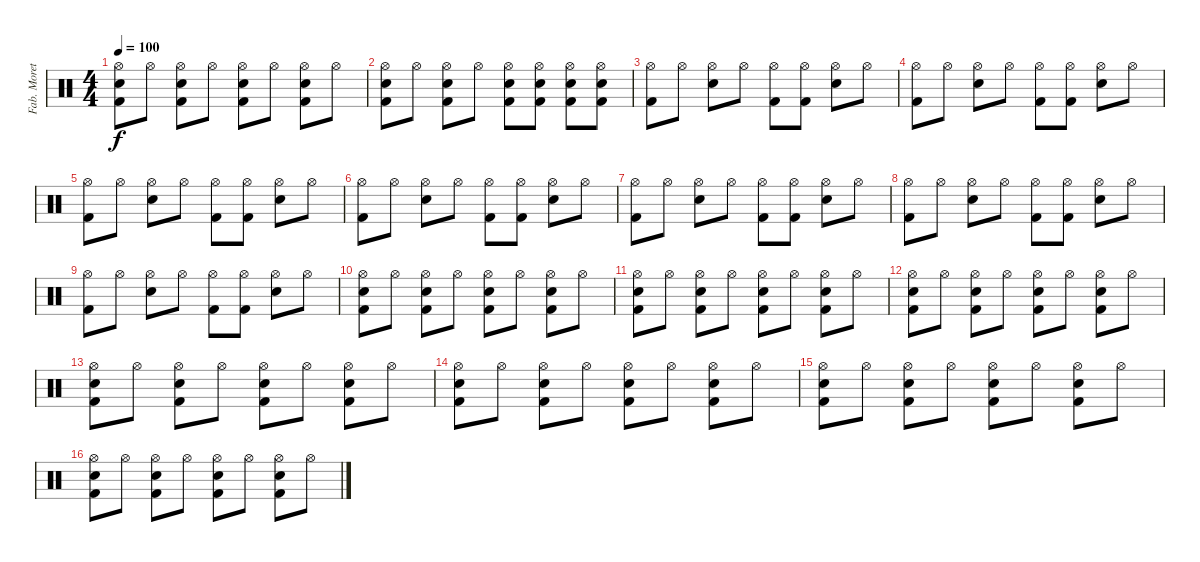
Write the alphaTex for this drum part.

\track ("Fab. Moretti" "Fab. Moret") {instrument percussion}
\staff {score}
\articulation defaults
\ts (4 4)
\tempo 100
\clef neutral
\ks c
("Hi-Hat (open)" "Electric Snare (hit)" "Kick (hit) 2").8{dy f} "Hi-Hat (open)".8 ("Hi-Hat (open)" "Electric Snare (hit)" "Kick (hit) 2").8 "Hi-Hat (open)".8 ("Hi-Hat (open)" "Electric Snare (hit)" "Kick (hit) 2").8 "Hi-Hat (open)".8 ("Hi-Hat (open)" "Electric Snare (hit)" "Kick (hit) 2").8 "Hi-Hat (open)".8 |
("Hi-Hat (open)" "Electric Snare (hit)" "Kick (hit) 2").8 "Hi-Hat (open)".8 ("Hi-Hat (open)" "Electric Snare (hit)" "Kick (hit) 2").8 "Hi-Hat (open)".8 ("Hi-Hat (open)" "Electric Snare (hit)" "Kick (hit) 2").8 ("Hi-Hat (open)" "Electric Snare (hit)" "Kick (hit) 2").8 ("Hi-Hat (open)" "Electric Snare (hit)" "Kick (hit) 2").8 ("Hi-Hat (open)" "Electric Snare (hit)" "Kick (hit) 2").8 |
("Hi-Hat (open)" "Kick (hit) 2").8 "Hi-Hat (open)".8 ("Hi-Hat (open)" "Electric Snare (hit)").8 "Hi-Hat (open)".8 ("Hi-Hat (open)" "Kick (hit) 2").8 ("Hi-Hat (open)" "Kick (hit) 2").8 ("Hi-Hat (open)" "Electric Snare (hit)").8 "Hi-Hat (open)".8 |
("Hi-Hat (open)" "Kick (hit) 2").8 "Hi-Hat (open)".8 ("Hi-Hat (open)" "Electric Snare (hit)").8 "Hi-Hat (open)".8 ("Hi-Hat (open)" "Kick (hit) 2").8 ("Hi-Hat (open)" "Kick (hit) 2").8 ("Hi-Hat (open)" "Electric Snare (hit)").8 "Hi-Hat (open)".8 |
("Hi-Hat (open)" "Kick (hit) 2").8 "Hi-Hat (open)".8 ("Hi-Hat (open)" "Electric Snare (hit)").8 "Hi-Hat (open)".8 ("Hi-Hat (open)" "Kick (hit) 2").8 ("Hi-Hat (open)" "Kick (hit) 2").8 ("Hi-Hat (open)" "Electric Snare (hit)").8 "Hi-Hat (open)".8 |
("Hi-Hat (open)" "Kick (hit) 2").8 "Hi-Hat (open)".8 ("Hi-Hat (open)" "Electric Snare (hit)").8 "Hi-Hat (open)".8 ("Hi-Hat (open)" "Kick (hit) 2").8 ("Hi-Hat (open)" "Kick (hit) 2").8 ("Hi-Hat (open)" "Electric Snare (hit)").8 "Hi-Hat (open)".8 |
("Hi-Hat (open)" "Kick (hit) 2").8 "Hi-Hat (open)".8 ("Hi-Hat (open)" "Electric Snare (hit)").8 "Hi-Hat (open)".8 ("Hi-Hat (open)" "Kick (hit) 2").8 ("Hi-Hat (open)" "Kick (hit) 2").8 ("Hi-Hat (open)" "Electric Snare (hit)").8 "Hi-Hat (open)".8 |
("Hi-Hat (open)" "Kick (hit) 2").8 "Hi-Hat (open)".8 ("Hi-Hat (open)" "Electric Snare (hit)").8 "Hi-Hat (open)".8 ("Hi-Hat (open)" "Kick (hit) 2").8 ("Hi-Hat (open)" "Kick (hit) 2").8 ("Hi-Hat (open)" "Electric Snare (hit)").8 "Hi-Hat (open)".8 |
("Hi-Hat (open)" "Kick (hit) 2").8 "Hi-Hat (open)".8 ("Hi-Hat (open)" "Electric Snare (hit)").8 "Hi-Hat (open)".8 ("Hi-Hat (open)" "Kick (hit) 2").8 ("Hi-Hat (open)" "Kick (hit) 2").8 ("Hi-Hat (open)" "Electric Snare (hit)").8 "Hi-Hat (open)".8 |
("Hi-Hat (open)" "Electric Snare (hit)" "Kick (hit) 2").8 "Hi-Hat (open)".8 ("Hi-Hat (open)" "Electric Snare (hit)" "Kick (hit) 2").8 "Hi-Hat (open)".8 ("Hi-Hat (open)" "Electric Snare (hit)" "Kick (hit) 2").8 "Hi-Hat (open)".8 ("Hi-Hat (open)" "Electric Snare (hit)" "Kick (hit) 2").8 "Hi-Hat (open)".8 |
("Hi-Hat (open)" "Electric Snare (hit)" "Kick (hit) 2").8 "Hi-Hat (open)".8 ("Hi-Hat (open)" "Electric Snare (hit)" "Kick (hit) 2").8 "Hi-Hat (open)".8 ("Hi-Hat (open)" "Electric Snare (hit)" "Kick (hit) 2").8 "Hi-Hat (open)".8 ("Hi-Hat (open)" "Electric Snare (hit)" "Kick (hit) 2").8 "Hi-Hat (open)".8 |
("Hi-Hat (open)" "Electric Snare (hit)" "Kick (hit) 2").8 "Hi-Hat (open)".8 ("Hi-Hat (open)" "Electric Snare (hit)" "Kick (hit) 2").8 "Hi-Hat (open)".8 ("Hi-Hat (open)" "Electric Snare (hit)" "Kick (hit) 2").8 "Hi-Hat (open)".8 ("Hi-Hat (open)" "Electric Snare (hit)" "Kick (hit) 2").8 "Hi-Hat (open)".8 |
("Hi-Hat (open)" "Electric Snare (hit)" "Kick (hit) 2").8 "Hi-Hat (open)".8 ("Hi-Hat (open)" "Electric Snare (hit)" "Kick (hit) 2").8 "Hi-Hat (open)".8 ("Hi-Hat (open)" "Electric Snare (hit)" "Kick (hit) 2").8 "Hi-Hat (open)".8 ("Hi-Hat (open)" "Electric Snare (hit)" "Kick (hit) 2").8 "Hi-Hat (open)".8 |
("Hi-Hat (open)" "Electric Snare (hit)" "Kick (hit) 2").8 "Hi-Hat (open)".8 ("Hi-Hat (open)" "Electric Snare (hit)" "Kick (hit) 2").8 "Hi-Hat (open)".8 ("Hi-Hat (open)" "Electric Snare (hit)" "Kick (hit) 2").8 "Hi-Hat (open)".8 ("Hi-Hat (open)" "Electric Snare (hit)" "Kick (hit) 2").8 "Hi-Hat (open)".8 |
("Hi-Hat (open)" "Electric Snare (hit)" "Kick (hit) 2").8 "Hi-Hat (open)".8 ("Hi-Hat (open)" "Electric Snare (hit)" "Kick (hit) 2").8 "Hi-Hat (open)".8 ("Hi-Hat (open)" "Electric Snare (hit)" "Kick (hit) 2").8 "Hi-Hat (open)".8 ("Hi-Hat (open)" "Electric Snare (hit)" "Kick (hit) 2").8 "Hi-Hat (open)".8 |
("Hi-Hat (open)" "Electric Snare (hit)" "Kick (hit) 2").8 "Hi-Hat (open)".8 ("Hi-Hat (open)" "Electric Snare (hit)" "Kick (hit) 2").8 "Hi-Hat (open)".8 ("Hi-Hat (open)" "Electric Snare (hit)" "Kick (hit) 2").8 "Hi-Hat (open)".8 ("Hi-Hat (open)" "Electric Snare (hit)" "Kick (hit) 2").8 "Hi-Hat (open)".8
